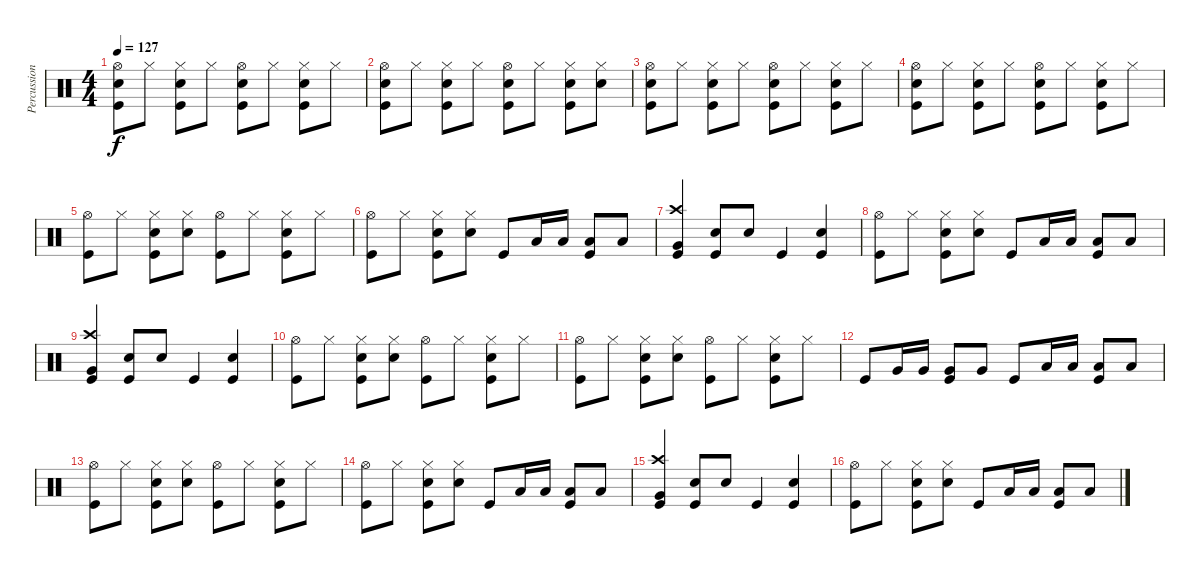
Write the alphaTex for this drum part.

\track ("Percussion" "Percussion") {instrument percussion}
\staff {score}
\articulation defaults
\ts (4 4)
\tempo 127
\clef neutral
\ks c
("Hi-Hat (open)" "Snare (hit) 2" "Kick (hit)").8{dy f} "Hi-Hat (closed)".8 ("Hi-Hat (closed)" "Snare (hit) 2" "Kick (hit)").8 "Hi-Hat (closed)".8 ("Hi-Hat (open)" "Snare (hit) 2" "Kick (hit)").8 "Hi-Hat (closed)".8 ("Hi-Hat (closed)" "Snare (hit) 2" "Kick (hit)").8 "Hi-Hat (closed)".8 |
("Hi-Hat (open)" "Snare (hit) 2" "Kick (hit)").8 "Hi-Hat (closed)".8 ("Hi-Hat (closed)" "Snare (hit) 2" "Kick (hit)").8 "Hi-Hat (closed)".8 ("Hi-Hat (open)" "Snare (hit) 2" "Kick (hit)").8 "Hi-Hat (closed)".8 ("Hi-Hat (closed)" "Snare (hit) 2" "Kick (hit)").8 ("Hi-Hat (closed)" "Snare (hit) 2").8 |
("Hi-Hat (open)" "Snare (hit) 2" "Kick (hit)").8 "Hi-Hat (closed)".8 ("Hi-Hat (closed)" "Snare (hit) 2" "Kick (hit)").8 "Hi-Hat (closed)".8 ("Hi-Hat (open)" "Snare (hit) 2" "Kick (hit)").8 "Hi-Hat (closed)".8 ("Hi-Hat (closed)" "Snare (hit) 2" "Kick (hit)").8 "Hi-Hat (closed)".8 |
("Hi-Hat (open)" "Snare (hit) 2" "Kick (hit)").8 "Hi-Hat (closed)".8 ("Hi-Hat (closed)" "Snare (hit) 2" "Kick (hit)").8 "Hi-Hat (closed)".8 ("Hi-Hat (open)" "Snare (hit) 2" "Kick (hit)").8 "Hi-Hat (closed)".8 ("Hi-Hat (closed)" "Snare (hit) 2" "Kick (hit)").8 "Hi-Hat (closed)".8 |
("Hi-Hat (open)" "Kick (hit)").8 "Hi-Hat (closed)".8 ("Hi-Hat (closed)" "Snare (hit) 2" "Kick (hit)").8 ("Hi-Hat (closed)" "Snare (hit) 2").8 ("Hi-Hat (open)" "Kick (hit)").8 "Hi-Hat (closed)".8 ("Hi-Hat (closed)" "Snare (hit) 2" "Kick (hit)").8 "Hi-Hat (closed)".8 |
("Hi-Hat (open)" "Kick (hit)").8 "Hi-Hat (closed)".8 ("Hi-Hat (closed)" "Snare (hit) 2" "Kick (hit)").8 ("Hi-Hat (closed)" "Snare (hit) 2").8 "Kick (hit)".8 "Low Floor Tom (hit)".16 "Low Floor Tom (hit)".16 ("Low Floor Tom (hit)" "Kick (hit)").8 "Low Floor Tom (hit)".8 |
("Crash high (hit)" "Very Low Tom (hit)" "Kick (hit)").4 ("Snare (hit) 2" "Kick (hit)").8 "Snare (hit) 2".8 "Kick (hit)".4 ("Snare (hit) 2" "Kick (hit)").4 |
("Hi-Hat (open)" "Kick (hit)").8 "Hi-Hat (closed)".8 ("Hi-Hat (closed)" "Snare (hit) 2" "Kick (hit)").8 ("Hi-Hat (closed)" "Snare (hit) 2").8 "Kick (hit)".8 "Low Floor Tom (hit)".16 "Low Floor Tom (hit)".16 ("Low Floor Tom (hit)" "Kick (hit)").8 "Low Floor Tom (hit)".8 |
("Crash high (hit)" "Very Low Tom (hit)" "Kick (hit)").4 ("Snare (hit) 2" "Kick (hit)").8 "Snare (hit) 2".8 "Kick (hit)".4 ("Snare (hit) 2" "Kick (hit)").4 |
("Hi-Hat (open)" "Kick (hit)").8 "Hi-Hat (closed)".8 ("Hi-Hat (closed)" "Snare (hit) 2" "Kick (hit)").8 ("Hi-Hat (closed)" "Snare (hit) 2").8 ("Hi-Hat (open)" "Kick (hit)").8 "Hi-Hat (closed)".8 ("Hi-Hat (closed)" "Snare (hit) 2" "Kick (hit)").8 "Hi-Hat (closed)".8 |
("Hi-Hat (open)" "Kick (hit)").8 "Hi-Hat (closed)".8 ("Hi-Hat (closed)" "Snare (hit) 2" "Kick (hit)").8 ("Hi-Hat (closed)" "Snare (hit) 2").8 ("Hi-Hat (open)" "Kick (hit)").8 "Hi-Hat (closed)".8 ("Hi-Hat (closed)" "Snare (hit) 2" "Kick (hit)").8 "Hi-Hat (closed)".8 |
"Kick (hit)".8 "Very Low Tom (hit)".16 "Very Low Tom (hit)".16 ("Very Low Tom (hit)" "Kick (hit)").8 "Very Low Tom (hit)".8 "Kick (hit)".8 "Low Floor Tom (hit)".16 "Low Floor Tom (hit)".16 ("Low Floor Tom (hit)" "Kick (hit)").8 "Low Floor Tom (hit)".8 |
("Hi-Hat (open)" "Kick (hit)").8 "Hi-Hat (closed)".8 ("Hi-Hat (closed)" "Snare (hit) 2" "Kick (hit)").8 ("Hi-Hat (closed)" "Snare (hit) 2").8 ("Hi-Hat (open)" "Kick (hit)").8 "Hi-Hat (closed)".8 ("Hi-Hat (closed)" "Snare (hit) 2" "Kick (hit)").8 "Hi-Hat (closed)".8 |
("Hi-Hat (open)" "Kick (hit)").8 "Hi-Hat (closed)".8 ("Hi-Hat (closed)" "Snare (hit) 2" "Kick (hit)").8 ("Hi-Hat (closed)" "Snare (hit) 2").8 "Kick (hit)".8 "Low Floor Tom (hit)".16 "Low Floor Tom (hit)".16 ("Low Floor Tom (hit)" "Kick (hit)").8 "Low Floor Tom (hit)".8 |
("Crash high (hit)" "Very Low Tom (hit)" "Kick (hit)").4 ("Snare (hit) 2" "Kick (hit)").8 "Snare (hit) 2".8 "Kick (hit)".4 ("Snare (hit) 2" "Kick (hit)").4 |
("Hi-Hat (open)" "Kick (hit)").8 "Hi-Hat (closed)".8 ("Hi-Hat (closed)" "Snare (hit) 2" "Kick (hit)").8 ("Hi-Hat (closed)" "Snare (hit) 2").8 "Kick (hit)".8 "Low Floor Tom (hit)".16 "Low Floor Tom (hit)".16 ("Low Floor Tom (hit)" "Kick (hit)").8 "Low Floor Tom (hit)".8
